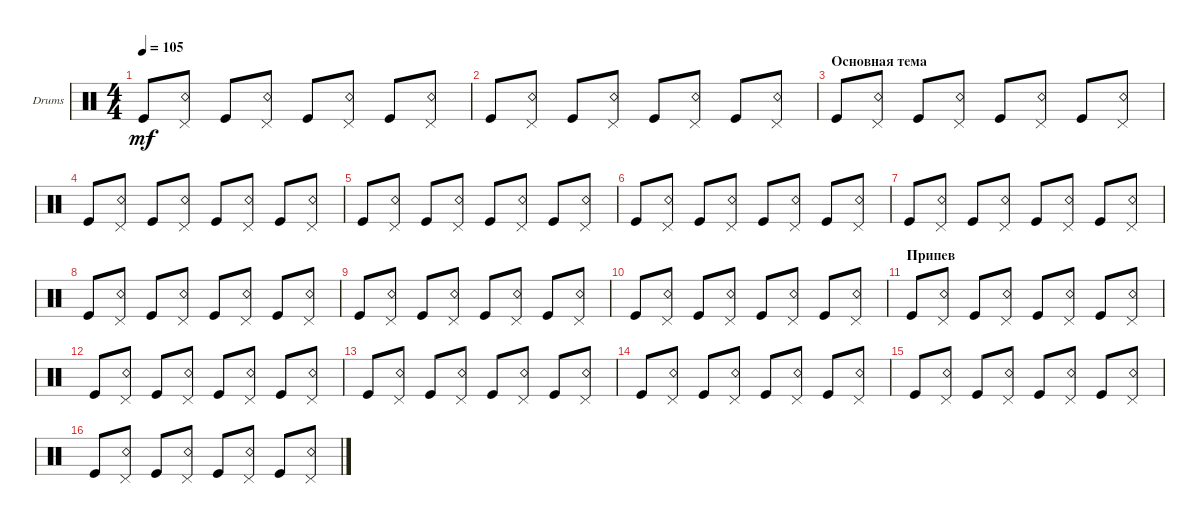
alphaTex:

\defaultSystemsLayout 4
\bracketExtendMode groupsimilarinstruments
\firstSystemTrackNameOrientation horizontal
\otherSystemsTrackNameOrientation horizontal
\track ("Drumkit" "Drums") {instrument percussion}
\staff {score}
\articulation defaults
\ts (4 4)
\tempo 105
\clef neutral
\ks c "Kick (hit)".8{dy mf}
("Pedal Hi-Hat (hit)" "Snare (rim shot)").8 "Kick (hit)".8 ("Pedal Hi-Hat (hit)" "Snare (rim shot)").8 "Kick (hit)".8 ("Pedal Hi-Hat (hit)" "Snare (rim shot)").8 "Kick (hit)".8 ("Pedal Hi-Hat (hit)" "Snare (rim shot)").8 |
"Kick (hit)".8 ("Pedal Hi-Hat (hit)" "Snare (rim shot)").8 "Kick (hit)".8 ("Pedal Hi-Hat (hit)" "Snare (rim shot)").8 "Kick (hit)".8 ("Pedal Hi-Hat (hit)" "Snare (rim shot)").8 "Kick (hit)".8 ("Pedal Hi-Hat (hit)" "Snare (rim shot)").8 |
\section ("" "Основная тема")
"Kick (hit)".8 ("Pedal Hi-Hat (hit)" "Snare (rim shot)").8 "Kick (hit)".8 ("Pedal Hi-Hat (hit)" "Snare (rim shot)").8 "Kick (hit)".8 ("Pedal Hi-Hat (hit)" "Snare (rim shot)").8 "Kick (hit)".8 ("Pedal Hi-Hat (hit)" "Snare (rim shot)").8 |
"Kick (hit)".8 ("Pedal Hi-Hat (hit)" "Snare (rim shot)").8 "Kick (hit)".8 ("Pedal Hi-Hat (hit)" "Snare (rim shot)").8 "Kick (hit)".8 ("Pedal Hi-Hat (hit)" "Snare (rim shot)").8 "Kick (hit)".8 ("Pedal Hi-Hat (hit)" "Snare (rim shot)").8 |
"Kick (hit)".8 ("Pedal Hi-Hat (hit)" "Snare (rim shot)").8 "Kick (hit)".8 ("Pedal Hi-Hat (hit)" "Snare (rim shot)").8 "Kick (hit)".8 ("Pedal Hi-Hat (hit)" "Snare (rim shot)").8 "Kick (hit)".8 ("Pedal Hi-Hat (hit)" "Snare (rim shot)").8 |
"Kick (hit)".8 ("Pedal Hi-Hat (hit)" "Snare (rim shot)").8 "Kick (hit)".8 ("Pedal Hi-Hat (hit)" "Snare (rim shot)").8 "Kick (hit)".8 ("Pedal Hi-Hat (hit)" "Snare (rim shot)").8 "Kick (hit)".8 ("Pedal Hi-Hat (hit)" "Snare (rim shot)").8 |
"Kick (hit)".8 ("Pedal Hi-Hat (hit)" "Snare (rim shot)").8 "Kick (hit)".8 ("Pedal Hi-Hat (hit)" "Snare (rim shot)").8 "Kick (hit)".8 ("Pedal Hi-Hat (hit)" "Snare (rim shot)").8 "Kick (hit)".8 ("Pedal Hi-Hat (hit)" "Snare (rim shot)").8 |
"Kick (hit)".8 ("Pedal Hi-Hat (hit)" "Snare (rim shot)").8 "Kick (hit)".8 ("Pedal Hi-Hat (hit)" "Snare (rim shot)").8 "Kick (hit)".8 ("Pedal Hi-Hat (hit)" "Snare (rim shot)").8 "Kick (hit)".8 ("Pedal Hi-Hat (hit)" "Snare (rim shot)").8 |
"Kick (hit)".8 ("Pedal Hi-Hat (hit)" "Snare (rim shot)").8 "Kick (hit)".8 ("Pedal Hi-Hat (hit)" "Snare (rim shot)").8 "Kick (hit)".8 ("Pedal Hi-Hat (hit)" "Snare (rim shot)").8 "Kick (hit)".8 ("Pedal Hi-Hat (hit)" "Snare (rim shot)").8 |
"Kick (hit)".8 ("Pedal Hi-Hat (hit)" "Snare (rim shot)").8 "Kick (hit)".8 ("Pedal Hi-Hat (hit)" "Snare (rim shot)").8 "Kick (hit)".8 ("Pedal Hi-Hat (hit)" "Snare (rim shot)").8 "Kick (hit)".8 ("Pedal Hi-Hat (hit)" "Snare (rim shot)").8 |
\section ("" "Припев")
"Kick (hit)".8 ("Pedal Hi-Hat (hit)" "Snare (rim shot)").8 "Kick (hit)".8 ("Pedal Hi-Hat (hit)" "Snare (rim shot)").8 "Kick (hit)".8 ("Pedal Hi-Hat (hit)" "Snare (rim shot)").8 "Kick (hit)".8 ("Pedal Hi-Hat (hit)" "Snare (rim shot)").8 |
"Kick (hit)".8 ("Pedal Hi-Hat (hit)" "Snare (rim shot)").8 "Kick (hit)".8 ("Pedal Hi-Hat (hit)" "Snare (rim shot)").8 "Kick (hit)".8 ("Pedal Hi-Hat (hit)" "Snare (rim shot)").8 "Kick (hit)".8 ("Pedal Hi-Hat (hit)" "Snare (rim shot)").8 |
"Kick (hit)".8 ("Pedal Hi-Hat (hit)" "Snare (rim shot)").8 "Kick (hit)".8 ("Pedal Hi-Hat (hit)" "Snare (rim shot)").8 "Kick (hit)".8 ("Pedal Hi-Hat (hit)" "Snare (rim shot)").8 "Kick (hit)".8 ("Pedal Hi-Hat (hit)" "Snare (rim shot)").8 |
"Kick (hit)".8 ("Pedal Hi-Hat (hit)" "Snare (rim shot)").8 "Kick (hit)".8 ("Pedal Hi-Hat (hit)" "Snare (rim shot)").8 "Kick (hit)".8 ("Pedal Hi-Hat (hit)" "Snare (rim shot)").8 "Kick (hit)".8 ("Pedal Hi-Hat (hit)" "Snare (rim shot)").8 |
"Kick (hit)".8 ("Pedal Hi-Hat (hit)" "Snare (rim shot)").8 "Kick (hit)".8 ("Pedal Hi-Hat (hit)" "Snare (rim shot)").8 "Kick (hit)".8 ("Pedal Hi-Hat (hit)" "Snare (rim shot)").8 "Kick (hit)".8 ("Pedal Hi-Hat (hit)" "Snare (rim shot)").8 |
"Kick (hit)".8 ("Pedal Hi-Hat (hit)" "Snare (rim shot)").8 "Kick (hit)".8 ("Pedal Hi-Hat (hit)" "Snare (rim shot)").8 "Kick (hit)".8 ("Pedal Hi-Hat (hit)" "Snare (rim shot)").8 "Kick (hit)".8 ("Pedal Hi-Hat (hit)" "Snare (rim shot)").8
